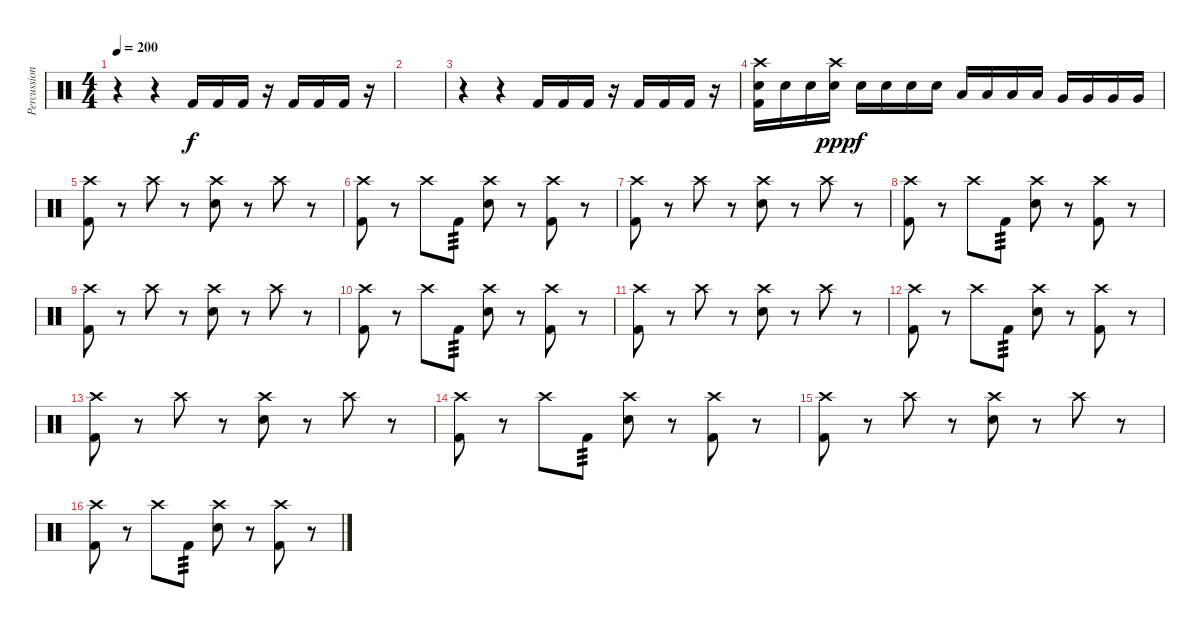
\track ("Percussion" "Percussion") {instrument percussion}
\staff {score}
\articulation defaults
\ts (4 4)
\tempo 200
\clef neutral
\ks c
r.4{dy f} r.4 "Kick (hit) 2".16 "Kick (hit) 2".16 "Kick (hit) 2".16 r.16 "Kick (hit) 2".16 "Kick (hit) 2".16 "Kick (hit) 2".16 r.16 |
|
r.4 r.4 "Kick (hit) 2".16 "Kick (hit) 2".16 "Kick (hit) 2".16 r.16 "Kick (hit) 2".16 "Kick (hit) 2".16 "Kick (hit) 2".16 r.16 |
("Crash high (hit)" "Electric Snare (hit)" "Kick (hit) 2").16 "Electric Snare (hit)".16 "Electric Snare (hit)".16 ("Crash high (hit)" "Electric Snare (hit)").16{dy ppp} "Electric Snare (hit)".16{dy f} "Electric Snare (hit)".16 "Electric Snare (hit)".16 "Electric Snare (hit)".16 "Low Tom (hit)".16 "Low Tom (hit)".16 "Low Tom (hit)".16 "Low Tom (hit)".16 "Very Low Tom (hit)".16 "Very Low Tom (hit)".16 "Very Low Tom (hit)".16 "Very Low Tom (hit)".16 |
("Crash high (hit)" "Kick (hit) 2").8 r.8 "Crash high (hit)".8 r.8 ("Crash high (hit)" "Electric Snare (hit)").8 r.8 "Crash high (hit)".8 r.8 |
("Crash high (hit)" "Kick (hit) 2").8 r.8 "Crash high (hit)".8 "Kick (hit) 2".8{tp 3} ("Crash high (hit)" "Electric Snare (hit)").8 r.8 ("Crash high (hit)" "Kick (hit) 2").8 r.8 |
("Crash high (hit)" "Kick (hit) 2").8 r.8 "Crash high (hit)".8 r.8 ("Crash high (hit)" "Electric Snare (hit)").8 r.8 "Crash high (hit)".8 r.8 |
("Crash high (hit)" "Kick (hit) 2").8 r.8 "Crash high (hit)".8 "Kick (hit) 2".8{tp 3} ("Crash high (hit)" "Electric Snare (hit)").8 r.8 ("Crash high (hit)" "Kick (hit) 2").8 r.8 |
("Crash high (hit)" "Kick (hit) 2").8 r.8 "Crash high (hit)".8 r.8 ("Crash high (hit)" "Electric Snare (hit)").8 r.8 "Crash high (hit)".8 r.8 |
("Crash high (hit)" "Kick (hit) 2").8 r.8 "Crash high (hit)".8 "Kick (hit) 2".8{tp 3} ("Crash high (hit)" "Electric Snare (hit)").8 r.8 ("Crash high (hit)" "Kick (hit) 2").8 r.8 |
("Crash high (hit)" "Kick (hit) 2").8 r.8 "Crash high (hit)".8 r.8 ("Crash high (hit)" "Electric Snare (hit)").8 r.8 "Crash high (hit)".8 r.8 |
("Crash high (hit)" "Kick (hit) 2").8 r.8 "Crash high (hit)".8 "Kick (hit) 2".8{tp 3} ("Crash high (hit)" "Electric Snare (hit)").8 r.8 ("Crash high (hit)" "Kick (hit) 2").8 r.8 |
("Crash high (hit)" "Kick (hit) 2").8 r.8 "Crash high (hit)".8 r.8 ("Crash high (hit)" "Electric Snare (hit)").8 r.8 "Crash high (hit)".8 r.8 |
("Crash high (hit)" "Kick (hit) 2").8 r.8 "Crash high (hit)".8 "Kick (hit) 2".8{tp 3} ("Crash high (hit)" "Electric Snare (hit)").8 r.8 ("Crash high (hit)" "Kick (hit) 2").8 r.8 |
("Crash high (hit)" "Kick (hit) 2").8 r.8 "Crash high (hit)".8 r.8 ("Crash high (hit)" "Electric Snare (hit)").8 r.8 "Crash high (hit)".8 r.8 |
("Crash high (hit)" "Kick (hit) 2").8 r.8 "Crash high (hit)".8 "Kick (hit) 2".8{tp 3} ("Crash high (hit)" "Electric Snare (hit)").8 r.8 ("Crash high (hit)" "Kick (hit) 2").8 r.8
